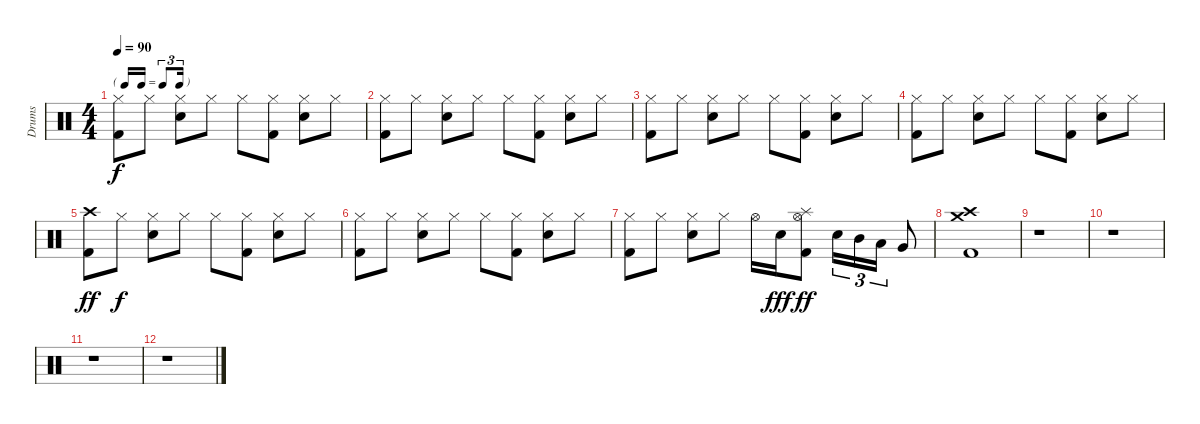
\track ("Drums" "Drums") {instrument percussion}
\staff {score}
\articulation defaults
\ts (4 4)
\tf triplet16th
\tempo 90
\clef neutral
\ks c
("Kick (hit) 2" "Hi-Hat (closed)").8{dy f} "Hi-Hat (closed)".8 ("Electric Snare (hit)" "Hi-Hat (closed)").8 "Hi-Hat (closed)".8 "Hi-Hat (closed)".8 ("Kick (hit) 2" "Hi-Hat (closed)").8 ("Electric Snare (hit)" "Hi-Hat (closed)").8 "Hi-Hat (closed)".8 |
("Kick (hit) 2" "Hi-Hat (closed)").8 "Hi-Hat (closed)".8 ("Electric Snare (hit)" "Hi-Hat (closed)").8 "Hi-Hat (closed)".8 "Hi-Hat (closed)".8 ("Kick (hit) 2" "Hi-Hat (closed)").8 ("Electric Snare (hit)" "Hi-Hat (closed)").8 "Hi-Hat (closed)".8 |
("Kick (hit) 2" "Hi-Hat (closed)").8 "Hi-Hat (closed)".8 ("Electric Snare (hit)" "Hi-Hat (closed)").8 "Hi-Hat (closed)".8 "Hi-Hat (closed)".8 ("Kick (hit) 2" "Hi-Hat (closed)").8 ("Electric Snare (hit)" "Hi-Hat (closed)").8 "Hi-Hat (closed)".8 |
("Kick (hit) 2" "Hi-Hat (closed)").8 "Hi-Hat (closed)".8 ("Electric Snare (hit)" "Hi-Hat (closed)").8 "Hi-Hat (closed)".8 "Hi-Hat (closed)".8 ("Kick (hit) 2" "Hi-Hat (closed)").8 ("Electric Snare (hit)" "Hi-Hat (closed)").8 "Hi-Hat (closed)".8 |
("Kick (hit) 2" "Crash high (hit)").8{dy ff} "Hi-Hat (closed)".8{dy f} ("Electric Snare (hit)" "Hi-Hat (closed)").8 "Hi-Hat (closed)".8 "Hi-Hat (closed)".8 ("Kick (hit) 2" "Hi-Hat (closed)").8 ("Electric Snare (hit)" "Hi-Hat (closed)").8 "Hi-Hat (closed)".8 |
("Kick (hit) 2" "Hi-Hat (closed)").8 "Hi-Hat (closed)".8{txt ""} ("Electric Snare (hit)" "Hi-Hat (closed)").8 "Hi-Hat (closed)".8 "Hi-Hat (closed)".8 ("Kick (hit) 2" "Hi-Hat (closed)").8 ("Electric Snare (hit)" "Hi-Hat (closed)").8 "Hi-Hat (closed)".8 |
("Kick (hit) 2" "Hi-Hat (closed)").8 "Hi-Hat (closed)".8 ("Electric Snare (hit)" "Hi-Hat (closed)").8 "Hi-Hat (closed)".8 "Hi-Hat (open)".16 "Electric Snare (hit)".16{dy fff} ("Kick (hit) 2" "Hi-Hat (open)" "Splash (hit)").8{dy ff} "Electric Snare (hit)".16{tu (3 2)} "Mid Tom (hit)".16{tu (3 2)} "Low Tom (hit)".16{tu (3 2)} "Very Low Tom (hit)".8 |
("Kick (hit) 2" "Crash high (hit)" "Crash medium (hit)").1 |
r.1 |
r.1 |
r.1 |
r.1
